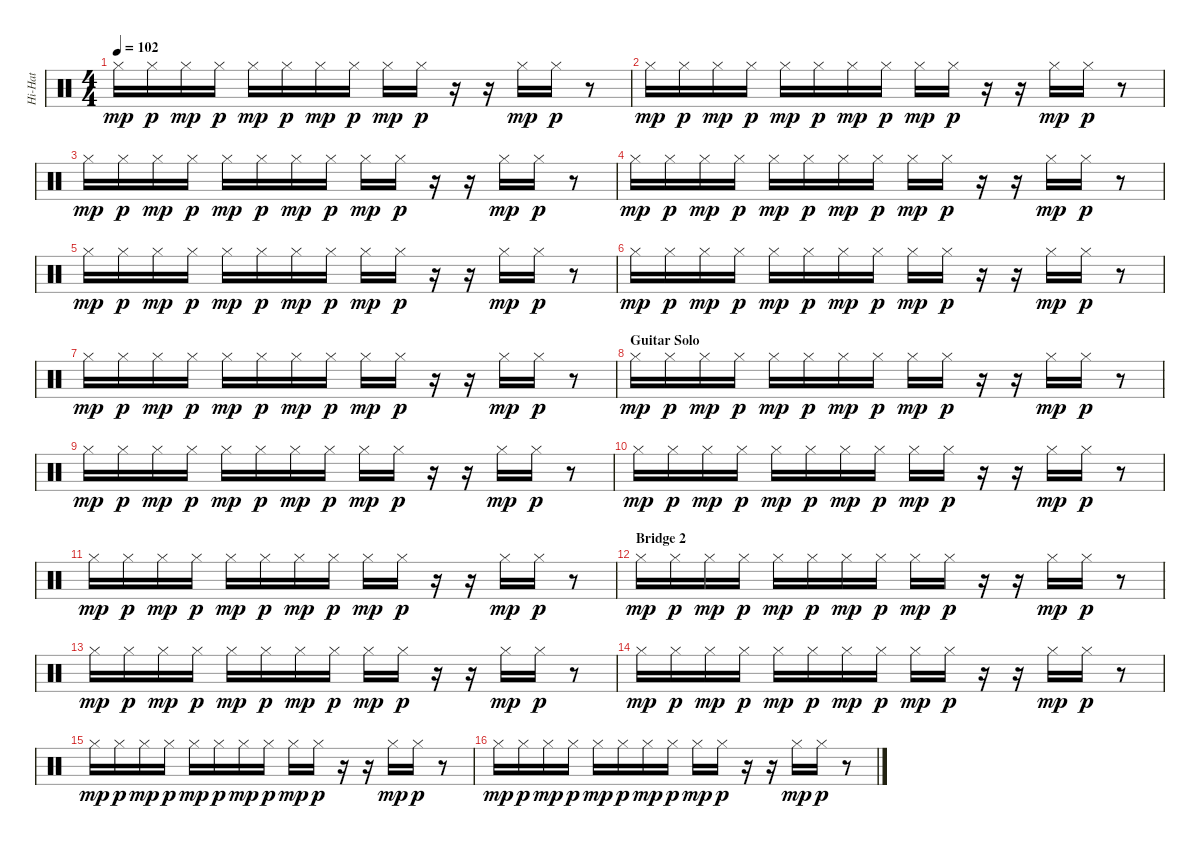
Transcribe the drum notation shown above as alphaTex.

\track ("Hi-Hat" "Hi-Hat") {instrument percussion}
\staff {score}
\articulation defaults
\ts (4 4)
\tempo 102
\clef neutral
\ks c "Hi-Hat (closed)".16{dy mp} "Hi-Hat (closed)".16{dy p} "Hi-Hat (closed)".16{dy mp} "Hi-Hat (closed)".16{dy p} "Hi-Hat (closed)".16{dy mp} "Hi-Hat (closed)".16{dy p} "Hi-Hat (closed)".16{dy mp} "Hi-Hat (closed)".16{dy p} "Hi-Hat (closed)".16{dy mp} "Hi-Hat (closed)".16{dy p}
r.16 r.16 "Hi-Hat (closed)".16{dy mp} "Hi-Hat (closed)".16{dy p} r.8 |
"Hi-Hat (closed)".16{dy mp} "Hi-Hat (closed)".16{dy p} "Hi-Hat (closed)".16{dy mp} "Hi-Hat (closed)".16{dy p} "Hi-Hat (closed)".16{dy mp} "Hi-Hat (closed)".16{dy p} "Hi-Hat (closed)".16{dy mp} "Hi-Hat (closed)".16{dy p} "Hi-Hat (closed)".16{dy mp} "Hi-Hat (closed)".16{dy p} r.16 r.16 "Hi-Hat (closed)".16{dy mp} "Hi-Hat (closed)".16{dy p} r.8 |
"Hi-Hat (closed)".16{dy mp} "Hi-Hat (closed)".16{dy p} "Hi-Hat (closed)".16{dy mp} "Hi-Hat (closed)".16{dy p} "Hi-Hat (closed)".16{dy mp} "Hi-Hat (closed)".16{dy p} "Hi-Hat (closed)".16{dy mp} "Hi-Hat (closed)".16{dy p} "Hi-Hat (closed)".16{dy mp} "Hi-Hat (closed)".16{dy p} r.16 r.16 "Hi-Hat (closed)".16{dy mp} "Hi-Hat (closed)".16{dy p} r.8 |
"Hi-Hat (closed)".16{dy mp} "Hi-Hat (closed)".16{dy p} "Hi-Hat (closed)".16{dy mp} "Hi-Hat (closed)".16{dy p} "Hi-Hat (closed)".16{dy mp} "Hi-Hat (closed)".16{dy p} "Hi-Hat (closed)".16{dy mp} "Hi-Hat (closed)".16{dy p} "Hi-Hat (closed)".16{dy mp} "Hi-Hat (closed)".16{dy p} r.16 r.16 "Hi-Hat (closed)".16{dy mp} "Hi-Hat (closed)".16{dy p} r.8 |
"Hi-Hat (closed)".16{dy mp} "Hi-Hat (closed)".16{dy p} "Hi-Hat (closed)".16{dy mp} "Hi-Hat (closed)".16{dy p} "Hi-Hat (closed)".16{dy mp} "Hi-Hat (closed)".16{dy p} "Hi-Hat (closed)".16{dy mp} "Hi-Hat (closed)".16{dy p} "Hi-Hat (closed)".16{dy mp} "Hi-Hat (closed)".16{dy p} r.16 r.16 "Hi-Hat (closed)".16{dy mp} "Hi-Hat (closed)".16{dy p} r.8 |
"Hi-Hat (closed)".16{dy mp} "Hi-Hat (closed)".16{dy p} "Hi-Hat (closed)".16{dy mp} "Hi-Hat (closed)".16{dy p} "Hi-Hat (closed)".16{dy mp} "Hi-Hat (closed)".16{dy p} "Hi-Hat (closed)".16{dy mp} "Hi-Hat (closed)".16{dy p} "Hi-Hat (closed)".16{dy mp} "Hi-Hat (closed)".16{dy p} r.16 r.16 "Hi-Hat (closed)".16{dy mp} "Hi-Hat (closed)".16{dy p} r.8 |
"Hi-Hat (closed)".16{dy mp} "Hi-Hat (closed)".16{dy p} "Hi-Hat (closed)".16{dy mp} "Hi-Hat (closed)".16{dy p} "Hi-Hat (closed)".16{dy mp} "Hi-Hat (closed)".16{dy p} "Hi-Hat (closed)".16{dy mp} "Hi-Hat (closed)".16{dy p} "Hi-Hat (closed)".16{dy mp} "Hi-Hat (closed)".16{dy p} r.16 r.16 "Hi-Hat (closed)".16{dy mp} "Hi-Hat (closed)".16{dy p} r.8 |
\section ("" "Guitar Solo")
"Hi-Hat (closed)".16{dy mp} "Hi-Hat (closed)".16{dy p} "Hi-Hat (closed)".16{dy mp} "Hi-Hat (closed)".16{dy p} "Hi-Hat (closed)".16{dy mp} "Hi-Hat (closed)".16{dy p} "Hi-Hat (closed)".16{dy mp} "Hi-Hat (closed)".16{dy p} "Hi-Hat (closed)".16{dy mp} "Hi-Hat (closed)".16{dy p} r.16 r.16 "Hi-Hat (closed)".16{dy mp} "Hi-Hat (closed)".16{dy p} r.8 |
"Hi-Hat (closed)".16{dy mp} "Hi-Hat (closed)".16{dy p} "Hi-Hat (closed)".16{dy mp} "Hi-Hat (closed)".16{dy p} "Hi-Hat (closed)".16{dy mp} "Hi-Hat (closed)".16{dy p} "Hi-Hat (closed)".16{dy mp} "Hi-Hat (closed)".16{dy p} "Hi-Hat (closed)".16{dy mp} "Hi-Hat (closed)".16{dy p} r.16 r.16 "Hi-Hat (closed)".16{dy mp} "Hi-Hat (closed)".16{dy p} r.8 |
"Hi-Hat (closed)".16{dy mp} "Hi-Hat (closed)".16{dy p} "Hi-Hat (closed)".16{dy mp} "Hi-Hat (closed)".16{dy p} "Hi-Hat (closed)".16{dy mp} "Hi-Hat (closed)".16{dy p} "Hi-Hat (closed)".16{dy mp} "Hi-Hat (closed)".16{dy p} "Hi-Hat (closed)".16{dy mp} "Hi-Hat (closed)".16{dy p} r.16 r.16 "Hi-Hat (closed)".16{dy mp} "Hi-Hat (closed)".16{dy p} r.8 |
"Hi-Hat (closed)".16{dy mp} "Hi-Hat (closed)".16{dy p} "Hi-Hat (closed)".16{dy mp} "Hi-Hat (closed)".16{dy p} "Hi-Hat (closed)".16{dy mp} "Hi-Hat (closed)".16{dy p} "Hi-Hat (closed)".16{dy mp} "Hi-Hat (closed)".16{dy p} "Hi-Hat (closed)".16{dy mp} "Hi-Hat (closed)".16{dy p} r.16 r.16 "Hi-Hat (closed)".16{dy mp} "Hi-Hat (closed)".16{dy p} r.8 |
\section ("" "Bridge 2")
"Hi-Hat (closed)".16{dy mp} "Hi-Hat (closed)".16{dy p} "Hi-Hat (closed)".16{dy mp} "Hi-Hat (closed)".16{dy p} "Hi-Hat (closed)".16{dy mp} "Hi-Hat (closed)".16{dy p} "Hi-Hat (closed)".16{dy mp} "Hi-Hat (closed)".16{dy p} "Hi-Hat (closed)".16{dy mp} "Hi-Hat (closed)".16{dy p} r.16 r.16 "Hi-Hat (closed)".16{dy mp} "Hi-Hat (closed)".16{dy p} r.8 |
"Hi-Hat (closed)".16{dy mp} "Hi-Hat (closed)".16{dy p} "Hi-Hat (closed)".16{dy mp} "Hi-Hat (closed)".16{dy p} "Hi-Hat (closed)".16{dy mp} "Hi-Hat (closed)".16{dy p} "Hi-Hat (closed)".16{dy mp} "Hi-Hat (closed)".16{dy p} "Hi-Hat (closed)".16{dy mp} "Hi-Hat (closed)".16{dy p} r.16 r.16 "Hi-Hat (closed)".16{dy mp} "Hi-Hat (closed)".16{dy p} r.8 |
"Hi-Hat (closed)".16{dy mp} "Hi-Hat (closed)".16{dy p} "Hi-Hat (closed)".16{dy mp} "Hi-Hat (closed)".16{dy p} "Hi-Hat (closed)".16{dy mp} "Hi-Hat (closed)".16{dy p} "Hi-Hat (closed)".16{dy mp} "Hi-Hat (closed)".16{dy p} "Hi-Hat (closed)".16{dy mp} "Hi-Hat (closed)".16{dy p} r.16 r.16 "Hi-Hat (closed)".16{dy mp} "Hi-Hat (closed)".16{dy p} r.8 |
"Hi-Hat (closed)".16{dy mp} "Hi-Hat (closed)".16{dy p} "Hi-Hat (closed)".16{dy mp} "Hi-Hat (closed)".16{dy p} "Hi-Hat (closed)".16{dy mp} "Hi-Hat (closed)".16{dy p} "Hi-Hat (closed)".16{dy mp} "Hi-Hat (closed)".16{dy p} "Hi-Hat (closed)".16{dy mp} "Hi-Hat (closed)".16{dy p} r.16 r.16 "Hi-Hat (closed)".16{dy mp} "Hi-Hat (closed)".16{dy p} r.8 |
"Hi-Hat (closed)".16{dy mp} "Hi-Hat (closed)".16{dy p} "Hi-Hat (closed)".16{dy mp} "Hi-Hat (closed)".16{dy p} "Hi-Hat (closed)".16{dy mp} "Hi-Hat (closed)".16{dy p} "Hi-Hat (closed)".16{dy mp} "Hi-Hat (closed)".16{dy p} "Hi-Hat (closed)".16{dy mp} "Hi-Hat (closed)".16{dy p} r.16 r.16 "Hi-Hat (closed)".16{dy mp} "Hi-Hat (closed)".16{dy p} r.8
